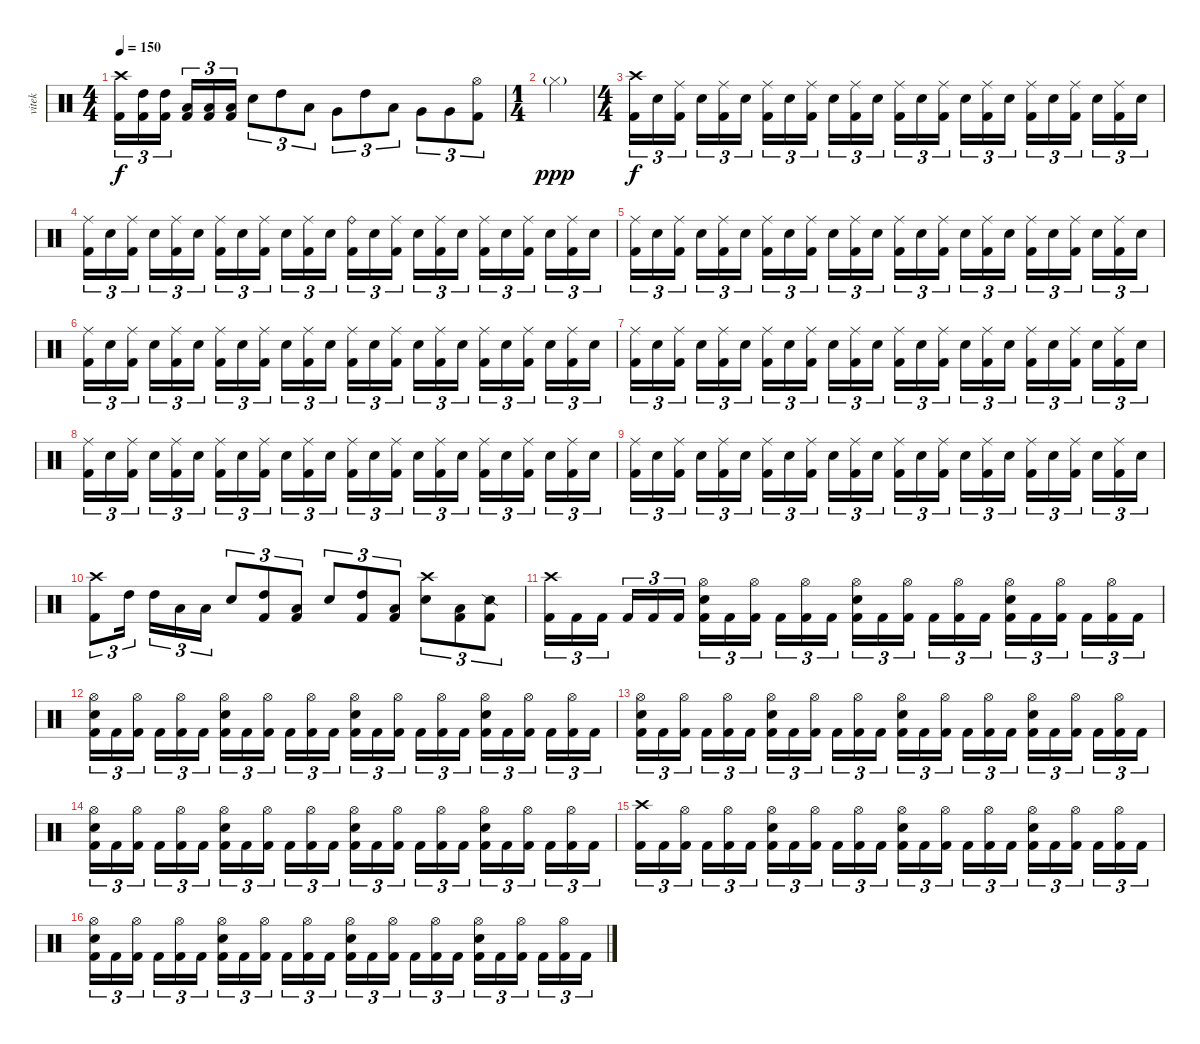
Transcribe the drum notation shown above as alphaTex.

\track ("vitek" "vitek") {instrument percussion}
\staff {score}
\articulation defaults
\ts (4 4)
\section ("" "")
\tempo 150
\clef neutral
\ks c
("Crash high (hit)" "Kick (hit) 2").16{tu (3 2) dy f} ("High Tom (hit)" "Kick (hit) 2").16{tu (3 2)} ("High Tom (hit)" "Kick (hit) 2").16{tu (3 2)} ("Low Tom (hit)" "Kick (hit) 2").16{tu (3 2)} ("Low Tom (hit)" "Kick (hit) 2").16{tu (3 2)} ("Low Tom (hit)" "Kick (hit) 2").16{tu (3 2)} "Electric Snare (hit)".8{tu (3 2)} "High Tom (hit)".8{tu (3 2)} "Low Tom (hit)".8{tu (3 2)} "Very Low Tom (hit)".8{tu (3 2)} "High Tom (hit)".8{tu (3 2)} "Low Tom (hit)".8{tu (3 2)} "Very Low Tom (hit)".8{tu (3 2)} "Very Low Tom (hit)".8{tu (3 2)} ("Hi-Hat (open)" "Kick (hit) 2").8{tu (3 2)} |
\ts (1 4)
"Hi-Hat (closed)"{g}.4{dy ppp} |
\ts (4 4)
\section ("" "")
("Crash high (hit)" "Kick (hit) 2").16{tu (3 2) dy f} "Electric Snare (hit)".16{tu (3 2)} ("Ride (middle)" "Kick (hit) 2").16{tu (3 2)} "Electric Snare (hit)".16{tu (3 2)} ("Ride (middle)" "Kick (hit) 2").16{tu (3 2)} "Electric Snare (hit)".16{tu (3 2)} ("Ride (middle)" "Kick (hit) 2").16{tu (3 2)} "Electric Snare (hit)".16{tu (3 2)} ("Ride (middle)" "Kick (hit) 2").16{tu (3 2)} "Electric Snare (hit)".16{tu (3 2)} ("Ride (middle)" "Kick (hit) 2").16{tu (3 2)} "Electric Snare (hit)".16{tu (3 2)} ("Ride (middle)" "Kick (hit) 2").16{tu (3 2)} "Electric Snare (hit)".16{tu (3 2)} ("Ride (middle)" "Kick (hit) 2").16{tu (3 2)} "Electric Snare (hit)".16{tu (3 2)} ("Ride (middle)" "Kick (hit) 2").16{tu (3 2)} "Electric Snare (hit)".16{tu (3 2)} ("Ride (middle)" "Kick (hit) 2").16{tu (3 2)} "Electric Snare (hit)".16{tu (3 2)} ("Ride (middle)" "Kick (hit) 2").16{tu (3 2)} "Electric Snare (hit)".16{tu (3 2)} ("Ride (middle)" "Kick (hit) 2").16{tu (3 2)} "Electric Snare (hit)".16{tu (3 2)} |
("Ride (middle)" "Kick (hit) 2").16{tu (3 2)} "Electric Snare (hit)".16{tu (3 2)} ("Ride (middle)" "Kick (hit) 2").16{tu (3 2)} "Electric Snare (hit)".16{tu (3 2)} ("Ride (middle)" "Kick (hit) 2").16{tu (3 2)} "Electric Snare (hit)".16{tu (3 2)} ("Ride (middle)" "Kick (hit) 2").16{tu (3 2)} "Electric Snare (hit)".16{tu (3 2)} ("Ride (middle)" "Kick (hit) 2").16{tu (3 2)} "Electric Snare (hit)".16{tu (3 2)} ("Ride (middle)" "Kick (hit) 2").16{tu (3 2)} "Electric Snare (hit)".16{tu (3 2)} ("Ride (bell)" "Kick (hit) 2").16{tu (3 2)} "Electric Snare (hit)".16{tu (3 2)} ("Ride (middle)" "Kick (hit) 2").16{tu (3 2)} "Electric Snare (hit)".16{tu (3 2)} ("Ride (middle)" "Kick (hit) 2").16{tu (3 2)} "Electric Snare (hit)".16{tu (3 2)} ("Ride (middle)" "Kick (hit) 2").16{tu (3 2)} "Electric Snare (hit)".16{tu (3 2)} ("Ride (middle)" "Kick (hit) 2").16{tu (3 2)} "Electric Snare (hit)".16{tu (3 2)} ("Ride (middle)" "Kick (hit) 2").16{tu (3 2)} "Electric Snare (hit)".16{tu (3 2)} |
("Ride (middle)" "Kick (hit) 2").16{tu (3 2)} "Electric Snare (hit)".16{tu (3 2)} ("Ride (middle)" "Kick (hit) 2").16{tu (3 2)} "Electric Snare (hit)".16{tu (3 2)} ("Ride (middle)" "Kick (hit) 2").16{tu (3 2)} "Electric Snare (hit)".16{tu (3 2)} ("Ride (middle)" "Kick (hit) 2").16{tu (3 2)} "Electric Snare (hit)".16{tu (3 2)} ("Ride (middle)" "Kick (hit) 2").16{tu (3 2)} "Electric Snare (hit)".16{tu (3 2)} ("Ride (middle)" "Kick (hit) 2").16{tu (3 2)} "Electric Snare (hit)".16{tu (3 2)} ("Ride (middle)" "Kick (hit) 2").16{tu (3 2)} "Electric Snare (hit)".16{tu (3 2)} ("Ride (middle)" "Kick (hit) 2").16{tu (3 2)} "Electric Snare (hit)".16{tu (3 2)} ("Ride (middle)" "Kick (hit) 2").16{tu (3 2)} "Electric Snare (hit)".16{tu (3 2)} ("Ride (middle)" "Kick (hit) 2").16{tu (3 2)} "Electric Snare (hit)".16{tu (3 2)} ("Ride (middle)" "Kick (hit) 2").16{tu (3 2)} "Electric Snare (hit)".16{tu (3 2)} ("Ride (middle)" "Kick (hit) 2").16{tu (3 2)} "Electric Snare (hit)".16{tu (3 2)} |
("Ride (middle)" "Kick (hit) 2").16{tu (3 2)} "Electric Snare (hit)".16{tu (3 2)} ("Ride (middle)" "Kick (hit) 2").16{tu (3 2)} "Electric Snare (hit)".16{tu (3 2)} ("Ride (middle)" "Kick (hit) 2").16{tu (3 2)} "Electric Snare (hit)".16{tu (3 2)} ("Ride (middle)" "Kick (hit) 2").16{tu (3 2)} "Electric Snare (hit)".16{tu (3 2)} ("Ride (middle)" "Kick (hit) 2").16{tu (3 2)} "Electric Snare (hit)".16{tu (3 2)} ("Ride (middle)" "Kick (hit) 2").16{tu (3 2)} "Electric Snare (hit)".16{tu (3 2)} ("Ride (middle)" "Kick (hit) 2").16{tu (3 2)} "Electric Snare (hit)".16{tu (3 2)} ("Ride (middle)" "Kick (hit) 2").16{tu (3 2)} "Electric Snare (hit)".16{tu (3 2)} ("Ride (middle)" "Kick (hit) 2").16{tu (3 2)} "Electric Snare (hit)".16{tu (3 2)} ("Ride (middle)" "Kick (hit) 2").16{tu (3 2)} "Electric Snare (hit)".16{tu (3 2)} ("Ride (middle)" "Kick (hit) 2").16{tu (3 2)} "Electric Snare (hit)".16{tu (3 2)} ("Ride (middle)" "Kick (hit) 2").16{tu (3 2)} "Electric Snare (hit)".16{tu (3 2)} |
("Ride (middle)" "Kick (hit) 2").16{tu (3 2)} "Electric Snare (hit)".16{tu (3 2)} ("Ride (middle)" "Kick (hit) 2").16{tu (3 2)} "Electric Snare (hit)".16{tu (3 2)} ("Ride (middle)" "Kick (hit) 2").16{tu (3 2)} "Electric Snare (hit)".16{tu (3 2)} ("Ride (middle)" "Kick (hit) 2").16{tu (3 2)} "Electric Snare (hit)".16{tu (3 2)} ("Ride (middle)" "Kick (hit) 2").16{tu (3 2)} "Electric Snare (hit)".16{tu (3 2)} ("Ride (middle)" "Kick (hit) 2").16{tu (3 2)} "Electric Snare (hit)".16{tu (3 2)} ("Ride (middle)" "Kick (hit) 2").16{tu (3 2)} "Electric Snare (hit)".16{tu (3 2)} ("Ride (middle)" "Kick (hit) 2").16{tu (3 2)} "Electric Snare (hit)".16{tu (3 2)} ("Ride (middle)" "Kick (hit) 2").16{tu (3 2)} "Electric Snare (hit)".16{tu (3 2)} ("Ride (middle)" "Kick (hit) 2").16{tu (3 2)} "Electric Snare (hit)".16{tu (3 2)} ("Ride (middle)" "Kick (hit) 2").16{tu (3 2)} "Electric Snare (hit)".16{tu (3 2)} ("Ride (middle)" "Kick (hit) 2").16{tu (3 2)} "Electric Snare (hit)".16{tu (3 2)} |
("Ride (middle)" "Kick (hit) 2").16{tu (3 2)} "Electric Snare (hit)".16{tu (3 2)} ("Ride (middle)" "Kick (hit) 2").16{tu (3 2)} "Electric Snare (hit)".16{tu (3 2)} ("Ride (middle)" "Kick (hit) 2").16{tu (3 2)} "Electric Snare (hit)".16{tu (3 2)} ("Ride (middle)" "Kick (hit) 2").16{tu (3 2)} "Electric Snare (hit)".16{tu (3 2)} ("Ride (middle)" "Kick (hit) 2").16{tu (3 2)} "Electric Snare (hit)".16{tu (3 2)} ("Ride (middle)" "Kick (hit) 2").16{tu (3 2)} "Electric Snare (hit)".16{tu (3 2)} ("Ride (middle)" "Kick (hit) 2").16{tu (3 2)} "Electric Snare (hit)".16{tu (3 2)} ("Ride (middle)" "Kick (hit) 2").16{tu (3 2)} "Electric Snare (hit)".16{tu (3 2)} ("Ride (middle)" "Kick (hit) 2").16{tu (3 2)} "Electric Snare (hit)".16{tu (3 2)} ("Ride (middle)" "Kick (hit) 2").16{tu (3 2)} "Electric Snare (hit)".16{tu (3 2)} ("Ride (middle)" "Kick (hit) 2").16{tu (3 2)} "Electric Snare (hit)".16{tu (3 2)} ("Ride (middle)" "Kick (hit) 2").16{tu (3 2)} "Electric Snare (hit)".16{tu (3 2)} |
("Ride (middle)" "Kick (hit) 2").16{tu (3 2)} "Electric Snare (hit)".16{tu (3 2)} ("Ride (middle)" "Kick (hit) 2").16{tu (3 2)} "Electric Snare (hit)".16{tu (3 2)} ("Ride (middle)" "Kick (hit) 2").16{tu (3 2)} "Electric Snare (hit)".16{tu (3 2)} ("Ride (middle)" "Kick (hit) 2").16{tu (3 2)} "Electric Snare (hit)".16{tu (3 2)} ("Ride (middle)" "Kick (hit) 2").16{tu (3 2)} "Electric Snare (hit)".16{tu (3 2)} ("Ride (middle)" "Kick (hit) 2").16{tu (3 2)} "Electric Snare (hit)".16{tu (3 2)} ("Ride (middle)" "Kick (hit) 2").16{tu (3 2)} "Electric Snare (hit)".16{tu (3 2)} ("Ride (middle)" "Kick (hit) 2").16{tu (3 2)} "Electric Snare (hit)".16{tu (3 2)} ("Ride (middle)" "Kick (hit) 2").16{tu (3 2)} "Electric Snare (hit)".16{tu (3 2)} ("Ride (middle)" "Kick (hit) 2").16{tu (3 2)} "Electric Snare (hit)".16{tu (3 2)} ("Ride (middle)" "Kick (hit) 2").16{tu (3 2)} "Electric Snare (hit)".16{tu (3 2)} ("Ride (middle)" "Kick (hit) 2").16{tu (3 2)} "Electric Snare (hit)".16{tu (3 2)} |
("Crash high (hit)" "Kick (hit) 2").8{tu (3 2)} "High Tom (hit)".16{tu (3 2)} "High Tom (hit)".16{tu (3 2)} "Low Tom (hit)".16{tu (3 2)} "Low Tom (hit)".16{tu (3 2)} "Electric Snare (hit)".8{tu (3 2)} ("High Tom (hit)" "Kick (hit) 2").8{tu (3 2)} ("Low Tom (hit)" "Kick (hit) 2").8{tu (3 2)} "Electric Snare (hit)".8{tu (3 2)} ("High Tom (hit)" "Kick (hit) 2").8{tu (3 2)} ("Low Tom (hit)" "Kick (hit) 2").8{tu (3 2)} ("Crash high (hit)" "Electric Snare (hit)").8{tu (3 2)} ("Low Tom (hit)" "Kick (hit) 2").8{tu (3 2)} ("Snare (side stick) 2" "Kick (hit) 2").8{tu (3 2)} |
\section ("" "")
("Crash high (hit)" "Kick (hit) 2").16{tu (3 2)} "Kick (hit) 2".16{tu (3 2)} "Kick (hit) 2".16{tu (3 2)} "Kick (hit) 2".16{tu (3 2)} "Kick (hit) 2".16{tu (3 2)} "Kick (hit) 2".16{tu (3 2)} ("Hi-Hat (open)" "Electric Snare (hit)" "Kick (hit) 2").16{tu (3 2)} "Kick (hit) 2".16{tu (3 2)} ("Hi-Hat (open)" "Kick (hit) 2").16{tu (3 2)} "Kick (hit) 2".16{tu (3 2)} ("Hi-Hat (open)" "Kick (hit) 2").16{tu (3 2)} "Kick (hit) 2".16{tu (3 2)} ("Hi-Hat (open)" "Electric Snare (hit)" "Kick (hit) 2").16{tu (3 2)} "Kick (hit) 2".16{tu (3 2)} ("Hi-Hat (open)" "Kick (hit) 2").16{tu (3 2)} "Kick (hit) 2".16{tu (3 2)} ("Hi-Hat (open)" "Kick (hit) 2").16{tu (3 2)} "Kick (hit) 2".16{tu (3 2)} ("Hi-Hat (open)" "Electric Snare (hit)" "Kick (hit) 2").16{tu (3 2)} "Kick (hit) 2".16{tu (3 2)} ("Hi-Hat (open)" "Kick (hit) 2").16{tu (3 2)} "Kick (hit) 2".16{tu (3 2)} ("Hi-Hat (open)" "Kick (hit) 2").16{tu (3 2)} "Kick (hit) 2".16{tu (3 2)} |
("Hi-Hat (open)" "Electric Snare (hit)" "Kick (hit) 2").16{tu (3 2)} "Kick (hit) 2".16{tu (3 2)} ("Hi-Hat (open)" "Kick (hit) 2").16{tu (3 2)} "Kick (hit) 2".16{tu (3 2)} ("Hi-Hat (open)" "Kick (hit) 2").16{tu (3 2)} "Kick (hit) 2".16{tu (3 2)} ("Hi-Hat (open)" "Electric Snare (hit)" "Kick (hit) 2").16{tu (3 2)} "Kick (hit) 2".16{tu (3 2)} ("Hi-Hat (open)" "Kick (hit) 2").16{tu (3 2)} "Kick (hit) 2".16{tu (3 2)} ("Hi-Hat (open)" "Kick (hit) 2").16{tu (3 2)} "Kick (hit) 2".16{tu (3 2)} ("Hi-Hat (open)" "Electric Snare (hit)" "Kick (hit) 2").16{tu (3 2)} "Kick (hit) 2".16{tu (3 2)} ("Hi-Hat (open)" "Kick (hit) 2").16{tu (3 2)} "Kick (hit) 2".16{tu (3 2)} ("Hi-Hat (open)" "Kick (hit) 2").16{tu (3 2)} "Kick (hit) 2".16{tu (3 2)} ("Hi-Hat (open)" "Electric Snare (hit)" "Kick (hit) 2").16{tu (3 2)} "Kick (hit) 2".16{tu (3 2)} ("Hi-Hat (open)" "Kick (hit) 2").16{tu (3 2)} "Kick (hit) 2".16{tu (3 2)} ("Hi-Hat (open)" "Kick (hit) 2").16{tu (3 2)} "Kick (hit) 2".16{tu (3 2)} |
("Hi-Hat (open)" "Electric Snare (hit)" "Kick (hit) 2").16{tu (3 2)} "Kick (hit) 2".16{tu (3 2)} ("Hi-Hat (open)" "Kick (hit) 2").16{tu (3 2)} "Kick (hit) 2".16{tu (3 2)} ("Hi-Hat (open)" "Kick (hit) 2").16{tu (3 2)} "Kick (hit) 2".16{tu (3 2)} ("Hi-Hat (open)" "Electric Snare (hit)" "Kick (hit) 2").16{tu (3 2)} "Kick (hit) 2".16{tu (3 2)} ("Hi-Hat (open)" "Kick (hit) 2").16{tu (3 2)} "Kick (hit) 2".16{tu (3 2)} ("Hi-Hat (open)" "Kick (hit) 2").16{tu (3 2)} "Kick (hit) 2".16{tu (3 2)} ("Hi-Hat (open)" "Electric Snare (hit)" "Kick (hit) 2").16{tu (3 2)} "Kick (hit) 2".16{tu (3 2)} ("Hi-Hat (open)" "Kick (hit) 2").16{tu (3 2)} "Kick (hit) 2".16{tu (3 2)} ("Hi-Hat (open)" "Kick (hit) 2").16{tu (3 2)} "Kick (hit) 2".16{tu (3 2)} ("Hi-Hat (open)" "Electric Snare (hit)" "Kick (hit) 2").16{tu (3 2)} "Kick (hit) 2".16{tu (3 2)} ("Hi-Hat (open)" "Kick (hit) 2").16{tu (3 2)} "Kick (hit) 2".16{tu (3 2)} ("Hi-Hat (open)" "Kick (hit) 2").16{tu (3 2)} "Kick (hit) 2".16{tu (3 2)} |
("Hi-Hat (open)" "Electric Snare (hit)" "Kick (hit) 2").16{tu (3 2)} "Kick (hit) 2".16{tu (3 2)} ("Hi-Hat (open)" "Kick (hit) 2").16{tu (3 2)} "Kick (hit) 2".16{tu (3 2)} ("Hi-Hat (open)" "Kick (hit) 2").16{tu (3 2)} "Kick (hit) 2".16{tu (3 2)} ("Hi-Hat (open)" "Electric Snare (hit)" "Kick (hit) 2").16{tu (3 2)} "Kick (hit) 2".16{tu (3 2)} ("Hi-Hat (open)" "Kick (hit) 2").16{tu (3 2)} "Kick (hit) 2".16{tu (3 2)} ("Hi-Hat (open)" "Kick (hit) 2").16{tu (3 2)} "Kick (hit) 2".16{tu (3 2)} ("Hi-Hat (open)" "Electric Snare (hit)" "Kick (hit) 2").16{tu (3 2)} "Kick (hit) 2".16{tu (3 2)} ("Hi-Hat (open)" "Kick (hit) 2").16{tu (3 2)} "Kick (hit) 2".16{tu (3 2)} ("Hi-Hat (open)" "Kick (hit) 2").16{tu (3 2)} "Kick (hit) 2".16{tu (3 2)} ("Hi-Hat (open)" "Electric Snare (hit)" "Kick (hit) 2").16{tu (3 2)} "Kick (hit) 2".16{tu (3 2)} ("Hi-Hat (open)" "Kick (hit) 2").16{tu (3 2)} "Kick (hit) 2".16{tu (3 2)} ("Hi-Hat (open)" "Kick (hit) 2").16{tu (3 2)} "Kick (hit) 2".16{tu (3 2)} |
("Crash high (hit)" "Kick (hit) 2").16{tu (3 2)} "Kick (hit) 2".16{tu (3 2)} ("Hi-Hat (open)" "Kick (hit) 2").16{tu (3 2)} "Kick (hit) 2".16{tu (3 2)} ("Hi-Hat (open)" "Kick (hit) 2").16{tu (3 2)} "Kick (hit) 2".16{tu (3 2)} ("Hi-Hat (open)" "Electric Snare (hit)" "Kick (hit) 2").16{tu (3 2)} "Kick (hit) 2".16{tu (3 2)} ("Hi-Hat (open)" "Kick (hit) 2").16{tu (3 2)} "Kick (hit) 2".16{tu (3 2)} ("Hi-Hat (open)" "Kick (hit) 2").16{tu (3 2)} "Kick (hit) 2".16{tu (3 2)} ("Hi-Hat (open)" "Electric Snare (hit)" "Kick (hit) 2").16{tu (3 2)} "Kick (hit) 2".16{tu (3 2)} ("Hi-Hat (open)" "Kick (hit) 2").16{tu (3 2)} "Kick (hit) 2".16{tu (3 2)} ("Hi-Hat (open)" "Kick (hit) 2").16{tu (3 2)} "Kick (hit) 2".16{tu (3 2)} ("Hi-Hat (open)" "Electric Snare (hit)" "Kick (hit) 2").16{tu (3 2)} "Kick (hit) 2".16{tu (3 2)} ("Hi-Hat (open)" "Kick (hit) 2").16{tu (3 2)} "Kick (hit) 2".16{tu (3 2)} ("Hi-Hat (open)" "Kick (hit) 2").16{tu (3 2)} "Kick (hit) 2".16{tu (3 2)} |
("Hi-Hat (open)" "Electric Snare (hit)" "Kick (hit) 2").16{tu (3 2)} "Kick (hit) 2".16{tu (3 2)} ("Hi-Hat (open)" "Kick (hit) 2").16{tu (3 2)} "Kick (hit) 2".16{tu (3 2)} ("Hi-Hat (open)" "Kick (hit) 2").16{tu (3 2)} "Kick (hit) 2".16{tu (3 2)} ("Hi-Hat (open)" "Electric Snare (hit)" "Kick (hit) 2").16{tu (3 2)} "Kick (hit) 2".16{tu (3 2)} ("Hi-Hat (open)" "Kick (hit) 2").16{tu (3 2)} "Kick (hit) 2".16{tu (3 2)} ("Hi-Hat (open)" "Kick (hit) 2").16{tu (3 2)} "Kick (hit) 2".16{tu (3 2)} ("Hi-Hat (open)" "Electric Snare (hit)" "Kick (hit) 2").16{tu (3 2)} "Kick (hit) 2".16{tu (3 2)} ("Hi-Hat (open)" "Kick (hit) 2").16{tu (3 2)} "Kick (hit) 2".16{tu (3 2)} ("Hi-Hat (open)" "Kick (hit) 2").16{tu (3 2)} "Kick (hit) 2".16{tu (3 2)} ("Hi-Hat (open)" "Electric Snare (hit)" "Kick (hit) 2").16{tu (3 2)} "Kick (hit) 2".16{tu (3 2)} ("Hi-Hat (open)" "Kick (hit) 2").16{tu (3 2)} "Kick (hit) 2".16{tu (3 2)} ("Hi-Hat (open)" "Kick (hit) 2").16{tu (3 2)} "Kick (hit) 2".16{tu (3 2)}
